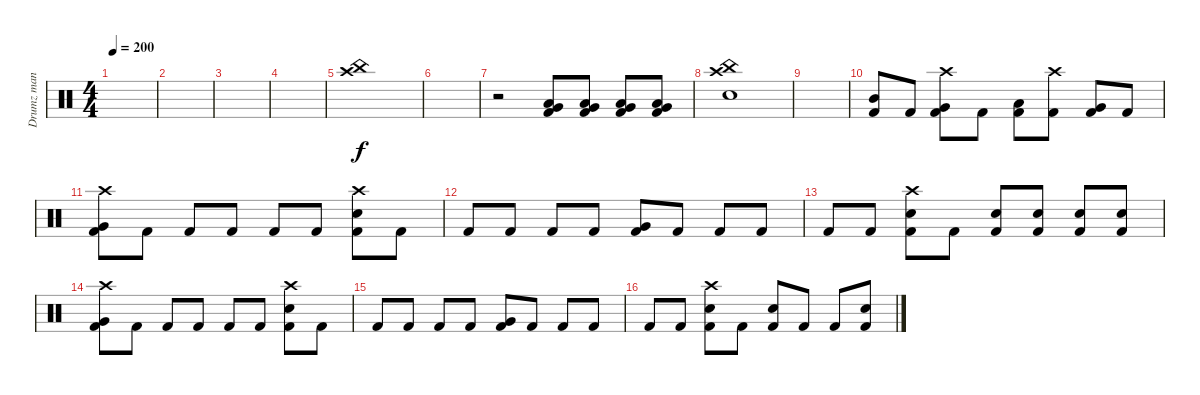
\track ("Drumz man" "Drumz man") {instrument percussion}
\staff {score}
\articulation defaults
\ts (4 4)
\tempo 200
\clef neutral
\ks c
|
|
|
|
("Crash high (hit)" "China (hit)").1 |
|
r.2 ("Kick (hit) 2" "Low Floor Tom (hit)" "Very Low Tom (hit)").8 ("Kick (hit) 2" "Low Floor Tom (hit)" "Very Low Tom (hit)").8 ("Kick (hit) 2" "Low Floor Tom (hit)" "Very Low Tom (hit)").8 ("Kick (hit) 2" "Low Floor Tom (hit)" "Very Low Tom (hit)").8 |
("Crash high (hit)" "China (hit)" "Snare (hit) 2").1 |
|
("Kick (hit) 2" "Mid Tom (hit)").8 "Kick (hit) 2".8 ("Crash high (hit)" "Kick (hit) 2" "Very Low Tom (hit)").8 "Kick (hit) 2".8 ("Kick (hit) 2" "Low Floor Tom (hit)").8 ("Crash high (hit)" "Kick (hit) 2").8 ("Kick (hit) 2" "Very Low Tom (hit)").8 "Kick (hit) 2".8 |
("Crash high (hit)" "Kick (hit) 2" "Very Low Tom (hit)").8 "Kick (hit) 2".8 "Kick (hit) 2".8 "Kick (hit) 2".8 "Kick (hit) 2".8 "Kick (hit) 2".8 ("Crash high (hit)" "Kick (hit) 2" "Snare (hit) 2").8 "Kick (hit) 2".8 |
"Kick (hit) 2".8 "Kick (hit) 2".8 "Kick (hit) 2".8 "Kick (hit) 2".8 ("Kick (hit) 2" "Very Low Tom (hit)").8 "Kick (hit) 2".8 "Kick (hit) 2".8 "Kick (hit) 2".8 |
"Kick (hit) 2".8 "Kick (hit) 2".8 ("Crash high (hit)" "Kick (hit) 2" "Snare (hit) 2").8 "Kick (hit) 2".8 ("Kick (hit) 2" "Electric Snare (hit)").8 ("Kick (hit) 2" "Electric Snare (hit)").8 ("Kick (hit) 2" "Electric Snare (hit)").8 ("Kick (hit) 2" "Electric Snare (hit)").8 |
("Crash high (hit)" "Kick (hit) 2" "Very Low Tom (hit)").8 "Kick (hit) 2".8 "Kick (hit) 2".8 "Kick (hit) 2".8 "Kick (hit) 2".8 "Kick (hit) 2".8 ("Crash high (hit)" "Kick (hit) 2" "Snare (hit) 2").8 "Kick (hit) 2".8 |
"Kick (hit) 2".8 "Kick (hit) 2".8 "Kick (hit) 2".8 "Kick (hit) 2".8 ("Kick (hit) 2" "Very Low Tom (hit)").8 "Kick (hit) 2".8 "Kick (hit) 2".8 "Kick (hit) 2".8 |
"Kick (hit) 2".8 "Kick (hit) 2".8 ("Crash high (hit)" "Kick (hit) 2" "Snare (hit) 2").8 "Kick (hit) 2".8 ("Kick (hit) 2" "Electric Snare (hit)").8 "Kick (hit) 2".8 "Kick (hit) 2".8 ("Kick (hit) 2" "Electric Snare (hit)").8
